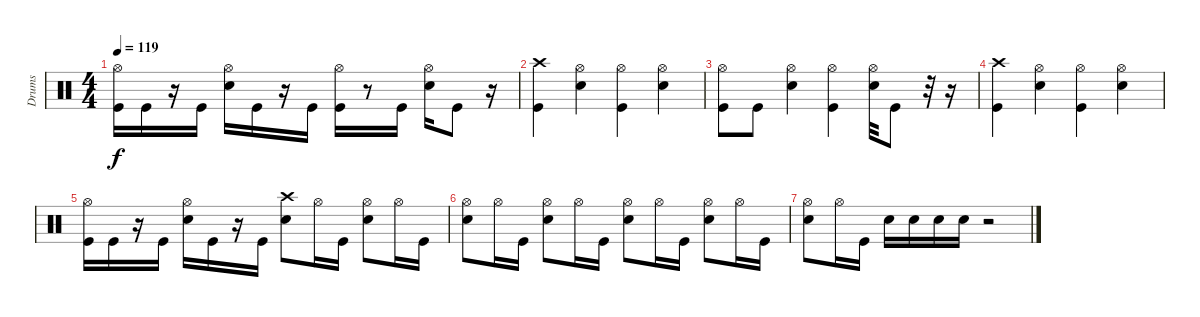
\track ("Drums" "Drums") {instrument percussion}
\staff {score}
\articulation defaults
\ts (4 4)
\tempo 119
\clef neutral
\ks c
("Hi-Hat (open)" "Kick (hit)").16{dy f} "Kick (hit)".16 r.16 "Kick (hit)".16 ("Hi-Hat (open)" "Snare (hit) 2").16 "Kick (hit)".16 r.16 "Kick (hit)".16 ("Hi-Hat (open)" "Kick (hit)").16 r.8 "Kick (hit)".16 ("Hi-Hat (open)" "Snare (hit) 2").16 "Kick (hit)".8 r.16 |
("Crash high (hit)" "Kick (hit)").4 ("Hi-Hat (open)" "Snare (hit) 2").4 ("Hi-Hat (open)" "Kick (hit)").4 ("Hi-Hat (open)" "Snare (hit) 2").4 |
("Hi-Hat (open)" "Kick (hit)").8 "Kick (hit)".8 ("Hi-Hat (open)" "Snare (hit) 2").4 ("Hi-Hat (open)" "Kick (hit)").4 ("Hi-Hat (open)" "Snare (hit) 2").32 "Kick (hit)".8 r.32 r.16 |
("Crash high (hit)" "Kick (hit)").4 ("Hi-Hat (open)" "Snare (hit) 2").4 ("Hi-Hat (open)" "Kick (hit)").4 ("Hi-Hat (open)" "Snare (hit) 2").4 |
("Hi-Hat (open)" "Kick (hit)").16 "Kick (hit)".16 r.16 "Kick (hit)".16 ("Hi-Hat (open)" "Snare (hit) 2").16 "Kick (hit)".16 r.16 "Kick (hit)".16 ("Crash high (hit)" "Snare (hit) 2").8 "Hi-Hat (open)".16 "Kick (hit)".16 ("Hi-Hat (open)" "Snare (hit) 2").8 "Hi-Hat (open)".16 "Kick (hit)".16 |
("Hi-Hat (open)" "Snare (hit) 2").8 "Hi-Hat (open)".16 "Kick (hit)".16 ("Hi-Hat (open)" "Snare (hit) 2").8 "Hi-Hat (open)".16 "Kick (hit)".16 ("Hi-Hat (open)" "Snare (hit) 2").8 "Hi-Hat (open)".16 "Kick (hit)".16 ("Hi-Hat (open)" "Snare (hit) 2").8 "Hi-Hat (open)".16 "Kick (hit)".16 |
("Hi-Hat (open)" "Snare (hit) 2").8 "Hi-Hat (open)".16 "Kick (hit)".16 "Snare (hit) 2".16 "Snare (hit) 2".16 "Snare (hit) 2".16 "Snare (hit) 2".16 r.2
